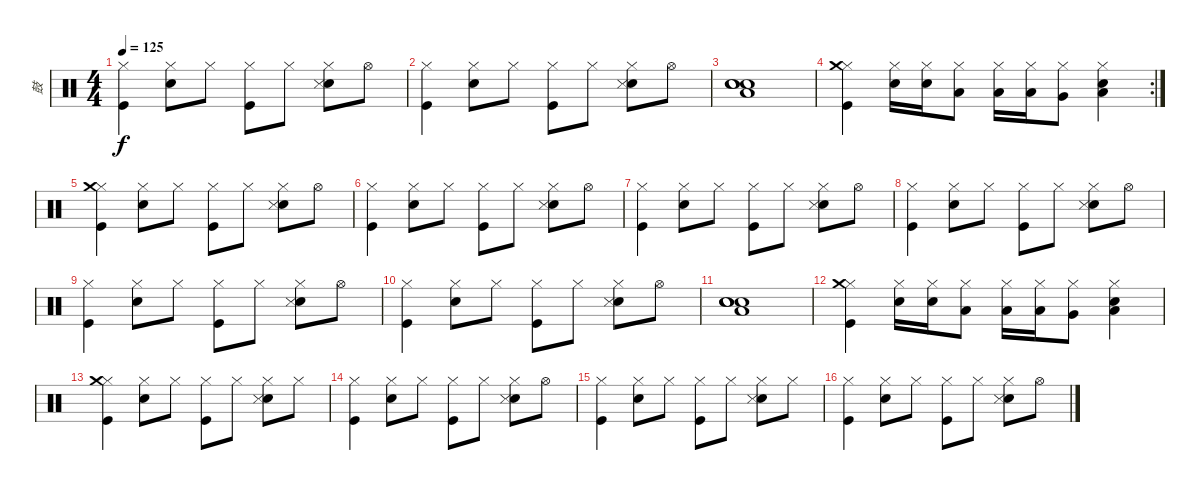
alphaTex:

\track ("鼓" "鼓") {instrument percussion}
\staff {score}
\articulation defaults
\ts (4 4)
\tempo 125
\clef neutral
\ks c
("Kick (hit)" "Hi-Hat (closed)").4{dy f} ("Hi-Hat (closed)" "Electric Snare (hit)").8 "Hi-Hat (closed)".8 ("Kick (hit)" "Hi-Hat (closed)").8 "Hi-Hat (closed)".8 ("Hi-Hat (closed)" "Electric Snare (hit)" "Snare (side stick) 3").8 "Hi-Hat (open)".8 |
("Kick (hit)" "Hi-Hat (closed)").4 ("Hi-Hat (closed)" "Electric Snare (hit)").8 "Hi-Hat (closed)".8 ("Kick (hit)" "Hi-Hat (closed)").8 "Hi-Hat (closed)".8 ("Hi-Hat (closed)" "Electric Snare (hit)" "Snare (side stick) 3").8 "Hi-Hat (open)".8 |
("Low Floor Tom (hit)" "Electric Snare (hit)" "Electric Snare (hit)" "Snare (hit) 2").1 |
\rc 2
("Kick (hit)" "Hi-Hat (closed)" "Crash medium (hit)").4 ("Hi-Hat (closed)" "Electric Snare (hit)").16 ("Hi-Hat (closed)" "Electric Snare (hit)").16 ("Hi-Hat (closed)" "Low Tom (hit)").8 ("Hi-Hat (closed)" "Low Tom (hit)").16 ("Hi-Hat (closed)" "Low Tom (hit)").16 ("Hi-Hat (closed)" "Very Low Tom (hit)").8 ("Electric Snare (hit)" "Hi-Hat (closed)" "Low Floor Tom (hit)").4 |
("Kick (hit)" "Hi-Hat (closed)" "Crash medium (hit)").4 ("Hi-Hat (closed)" "Electric Snare (hit)").8 "Hi-Hat (closed)".8 ("Kick (hit)" "Hi-Hat (closed)").8 "Hi-Hat (closed)".8 ("Hi-Hat (closed)" "Electric Snare (hit)" "Snare (side stick) 3").8 "Hi-Hat (open)".8 |
("Kick (hit)" "Hi-Hat (closed)").4 ("Hi-Hat (closed)" "Electric Snare (hit)").8 "Hi-Hat (closed)".8 ("Kick (hit)" "Hi-Hat (closed)").8 "Hi-Hat (closed)".8 ("Hi-Hat (closed)" "Electric Snare (hit)" "Snare (side stick) 3").8 "Hi-Hat (open)".8 |
("Kick (hit)" "Hi-Hat (closed)").4 ("Hi-Hat (closed)" "Electric Snare (hit)").8 "Hi-Hat (closed)".8 ("Kick (hit)" "Hi-Hat (closed)").8 "Hi-Hat (closed)".8 ("Hi-Hat (closed)" "Electric Snare (hit)" "Snare (side stick) 3").8 "Hi-Hat (open)".8 |
("Kick (hit)" "Hi-Hat (closed)").4 ("Hi-Hat (closed)" "Electric Snare (hit)").8 "Hi-Hat (closed)".8 ("Kick (hit)" "Hi-Hat (closed)").8 "Hi-Hat (closed)".8 ("Hi-Hat (closed)" "Electric Snare (hit)" "Snare (side stick) 3").8 "Hi-Hat (open)".8 |
("Kick (hit)" "Hi-Hat (closed)").4 ("Hi-Hat (closed)" "Electric Snare (hit)").8 "Hi-Hat (closed)".8 ("Kick (hit)" "Hi-Hat (closed)").8 "Hi-Hat (closed)".8 ("Hi-Hat (closed)" "Electric Snare (hit)" "Snare (side stick) 3").8 "Hi-Hat (open)".8 |
("Kick (hit)" "Hi-Hat (closed)").4 ("Hi-Hat (closed)" "Electric Snare (hit)").8 "Hi-Hat (closed)".8 ("Kick (hit)" "Hi-Hat (closed)").8 "Hi-Hat (closed)".8 ("Hi-Hat (closed)" "Electric Snare (hit)" "Snare (side stick) 3").8 "Hi-Hat (open)".8 |
("Low Floor Tom (hit)" "Electric Snare (hit)" "Electric Snare (hit)" "Snare (hit) 2").1 |
("Kick (hit)" "Hi-Hat (closed)" "Crash medium (hit)").4 ("Hi-Hat (closed)" "Electric Snare (hit)").16 ("Hi-Hat (closed)" "Electric Snare (hit)").16 ("Hi-Hat (closed)" "Low Tom (hit)").8 ("Hi-Hat (closed)" "Low Tom (hit)").16 ("Hi-Hat (closed)" "Low Tom (hit)").16 ("Hi-Hat (closed)" "Very Low Tom (hit)").8 ("Electric Snare (hit)" "Hi-Hat (closed)" "Low Floor Tom (hit)").4 |
("Kick (hit)" "Hi-Hat (closed)" "Crash medium (hit)").4 ("Hi-Hat (closed)" "Electric Snare (hit)").8 "Hi-Hat (closed)".8 ("Kick (hit)" "Hi-Hat (closed)").8 "Hi-Hat (closed)".8 ("Hi-Hat (closed)" "Electric Snare (hit)" "Snare (side stick) 3").8 "Hi-Hat (closed)".8 |
("Kick (hit)" "Hi-Hat (closed)").4 ("Hi-Hat (closed)" "Electric Snare (hit)").8 "Hi-Hat (closed)".8 ("Kick (hit)" "Hi-Hat (closed)").8 "Hi-Hat (closed)".8 ("Hi-Hat (closed)" "Electric Snare (hit)" "Snare (side stick) 3").8 "Hi-Hat (open)".8 |
("Kick (hit)" "Hi-Hat (closed)").4 ("Hi-Hat (closed)" "Electric Snare (hit)").8 "Hi-Hat (closed)".8 ("Kick (hit)" "Hi-Hat (closed)").8 "Hi-Hat (closed)".8 ("Hi-Hat (closed)" "Electric Snare (hit)" "Snare (side stick) 3").8 "Hi-Hat (closed)".8 |
("Kick (hit)" "Hi-Hat (closed)").4 ("Hi-Hat (closed)" "Electric Snare (hit)").8 "Hi-Hat (closed)".8 ("Kick (hit)" "Hi-Hat (closed)").8 "Hi-Hat (closed)".8 ("Hi-Hat (closed)" "Electric Snare (hit)" "Snare (side stick) 3").8 "Hi-Hat (open)".8
